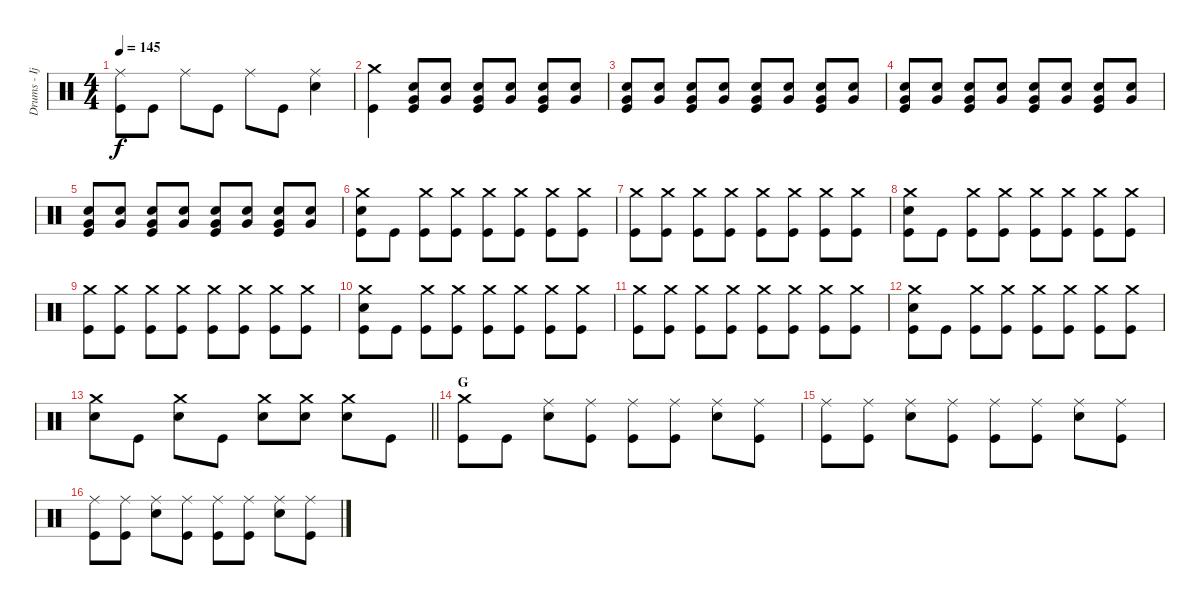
\track ("Drums - Ijichi" "Drums - Ij") {instrument percussion}
\staff {score}
\articulation defaults
\ts (4 4)
\tempo 145
\clef neutral
\ks c
("Ride (middle)" "Kick (hit)").8{dy f} "Kick (hit)".8 "Ride (middle)".8 "Kick (hit)".8 "Ride (middle)".8 "Kick (hit)".8 ("Ride (middle)" "Electric Snare (hit)").4 |
("Crash medium (hit)" "Kick (hit)").4 ("Electric Snare (hit)" "Very Low Tom (hit)" "Kick (hit)").8{volume 7} ("Electric Snare (hit)" "Very Low Tom (hit)").8{volume 13} ("Electric Snare (hit)" "Very Low Tom (hit)" "Kick (hit)").8 ("Electric Snare (hit)" "Very Low Tom (hit)").8 ("Electric Snare (hit)" "Very Low Tom (hit)" "Kick (hit)").8 ("Electric Snare (hit)" "Very Low Tom (hit)").8 |
("Electric Snare (hit)" "Very Low Tom (hit)" "Kick (hit)").8 ("Electric Snare (hit)" "Very Low Tom (hit)").8 ("Electric Snare (hit)" "Very Low Tom (hit)" "Kick (hit)").8 ("Electric Snare (hit)" "Very Low Tom (hit)").8 ("Electric Snare (hit)" "Very Low Tom (hit)" "Kick (hit)").8 ("Electric Snare (hit)" "Very Low Tom (hit)").8 ("Electric Snare (hit)" "Very Low Tom (hit)" "Kick (hit)").8 ("Electric Snare (hit)" "Very Low Tom (hit)").8 |
("Electric Snare (hit)" "Very Low Tom (hit)" "Kick (hit)").8 ("Electric Snare (hit)" "Very Low Tom (hit)").8 ("Electric Snare (hit)" "Very Low Tom (hit)" "Kick (hit)").8 ("Electric Snare (hit)" "Very Low Tom (hit)").8 ("Electric Snare (hit)" "Very Low Tom (hit)" "Kick (hit)").8 ("Electric Snare (hit)" "Very Low Tom (hit)").8 ("Electric Snare (hit)" "Very Low Tom (hit)" "Kick (hit)").8 ("Electric Snare (hit)" "Very Low Tom (hit)").8 |
("Electric Snare (hit)" "Very Low Tom (hit)" "Kick (hit)").8 ("Electric Snare (hit)" "Very Low Tom (hit)").8 ("Electric Snare (hit)" "Very Low Tom (hit)" "Kick (hit)").8 ("Electric Snare (hit)" "Very Low Tom (hit)").8 ("Electric Snare (hit)" "Very Low Tom (hit)" "Kick (hit)").8 ("Electric Snare (hit)" "Very Low Tom (hit)").8 ("Electric Snare (hit)" "Very Low Tom (hit)" "Kick (hit)").8 ("Electric Snare (hit)" "Very Low Tom (hit)").8 |
("Crash medium (hit)" "Electric Snare (hit)" "Kick (hit)").8{volume 7} "Kick (hit)".8{volume 13} ("Crash medium (hit)" "Kick (hit)").8 ("Crash medium (hit)" "Kick (hit)").8 ("Crash medium (hit)" "Kick (hit)").8 ("Crash medium (hit)" "Kick (hit)").8 ("Crash medium (hit)" "Kick (hit)").8 ("Crash medium (hit)" "Kick (hit)").8 |
("Crash medium (hit)" "Kick (hit)").8 ("Crash medium (hit)" "Kick (hit)").8 ("Crash medium (hit)" "Kick (hit)").8 ("Crash medium (hit)" "Kick (hit)").8 ("Crash medium (hit)" "Kick (hit)").8 ("Crash medium (hit)" "Kick (hit)").8 ("Crash medium (hit)" "Kick (hit)").8 ("Crash medium (hit)" "Kick (hit)").8 |
("Crash medium (hit)" "Electric Snare (hit)" "Kick (hit)").8{volume 9} "Kick (hit)".8{volume 13} ("Crash medium (hit)" "Kick (hit)").8 ("Crash medium (hit)" "Kick (hit)").8 ("Crash medium (hit)" "Kick (hit)").8 ("Crash medium (hit)" "Kick (hit)").8 ("Crash medium (hit)" "Kick (hit)").8 ("Crash medium (hit)" "Kick (hit)").8 |
("Crash medium (hit)" "Kick (hit)").8 ("Crash medium (hit)" "Kick (hit)").8 ("Crash medium (hit)" "Kick (hit)").8 ("Crash medium (hit)" "Kick (hit)").8 ("Crash medium (hit)" "Kick (hit)").8 ("Crash medium (hit)" "Kick (hit)").8 ("Crash medium (hit)" "Kick (hit)").8 ("Crash medium (hit)" "Kick (hit)").8 |
("Crash medium (hit)" "Electric Snare (hit)" "Kick (hit)").8{volume 9} "Kick (hit)".8{volume 13} ("Crash medium (hit)" "Kick (hit)").8 ("Crash medium (hit)" "Kick (hit)").8 ("Crash medium (hit)" "Kick (hit)").8 ("Crash medium (hit)" "Kick (hit)").8 ("Crash medium (hit)" "Kick (hit)").8 ("Crash medium (hit)" "Kick (hit)").8 |
("Crash medium (hit)" "Kick (hit)").8 ("Crash medium (hit)" "Kick (hit)").8 ("Crash medium (hit)" "Kick (hit)").8 ("Crash medium (hit)" "Kick (hit)").8 ("Crash medium (hit)" "Kick (hit)").8 ("Crash medium (hit)" "Kick (hit)").8 ("Crash medium (hit)" "Kick (hit)").8 ("Crash medium (hit)" "Kick (hit)").8 |
("Crash medium (hit)" "Electric Snare (hit)" "Kick (hit)").8{volume 11} "Kick (hit)".8{volume 13} ("Crash medium (hit)" "Kick (hit)").8 ("Crash medium (hit)" "Kick (hit)").8 ("Crash medium (hit)" "Kick (hit)").8 ("Crash medium (hit)" "Kick (hit)").8 ("Crash medium (hit)" "Kick (hit)").8 ("Crash medium (hit)" "Kick (hit)").8 |
\barLineRight lightlight
("Crash medium (hit)" "Electric Snare (hit)").8 "Kick (hit)".8 ("Crash medium (hit)" "Electric Snare (hit)").8 "Kick (hit)".8 ("Crash medium (hit)" "Electric Snare (hit)").8 ("Crash medium (hit)" "Electric Snare (hit)").8 ("Crash medium (hit)" "Electric Snare (hit)").8 "Kick (hit)".8 |
\section ("" "G")
("Crash medium (hit)" "Kick (hit)").8 "Kick (hit)".8 ("Ride (middle)" "Electric Snare (hit)").8 ("Ride (middle)" "Kick (hit)").8 ("Ride (middle)" "Kick (hit)").8 ("Ride (middle)" "Kick (hit)").8 ("Ride (middle)" "Electric Snare (hit)").8 ("Ride (middle)" "Kick (hit)").8 |
("Ride (middle)" "Kick (hit)").8 ("Ride (middle)" "Kick (hit)").8 ("Ride (middle)" "Electric Snare (hit)").8 ("Ride (middle)" "Kick (hit)").8 ("Ride (middle)" "Kick (hit)").8 ("Ride (middle)" "Kick (hit)").8 ("Ride (middle)" "Electric Snare (hit)").8 ("Ride (middle)" "Kick (hit)").8 |
("Ride (middle)" "Kick (hit)").8 ("Ride (middle)" "Kick (hit)").8 ("Ride (middle)" "Electric Snare (hit)").8 ("Ride (middle)" "Kick (hit)").8 ("Ride (middle)" "Kick (hit)").8 ("Ride (middle)" "Kick (hit)").8 ("Ride (middle)" "Electric Snare (hit)").8 ("Ride (middle)" "Kick (hit)").8
